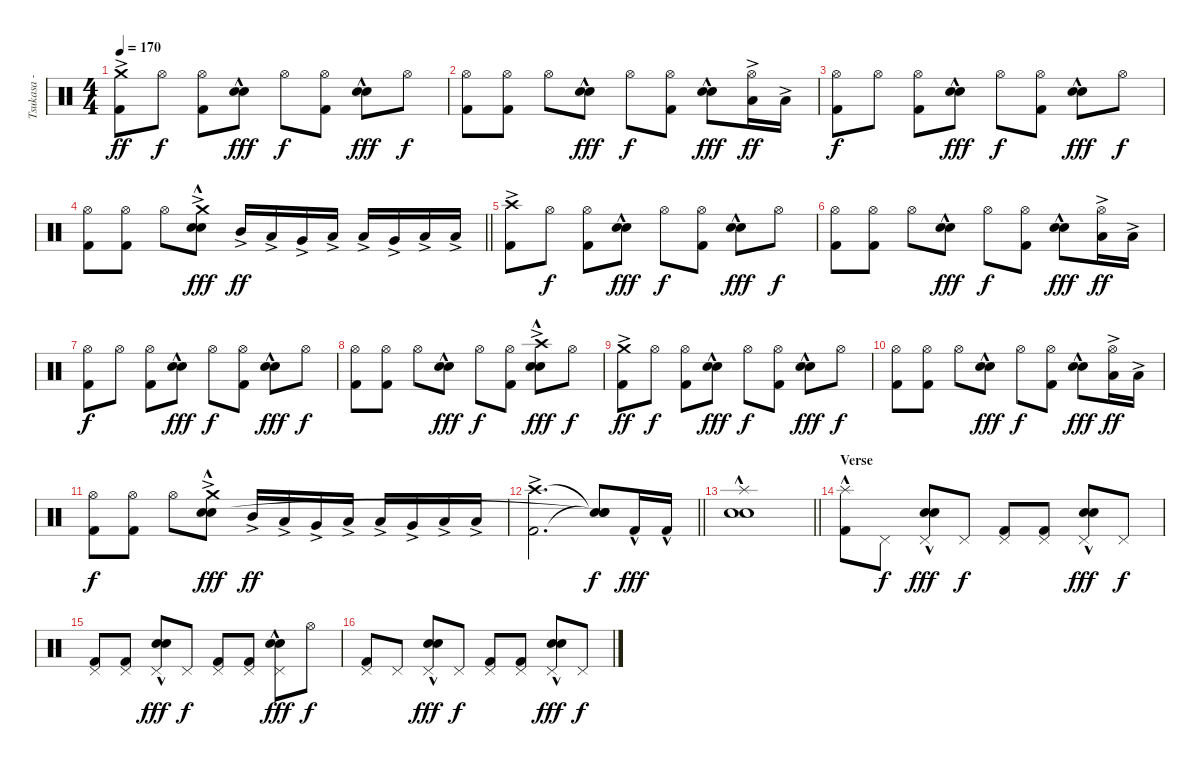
\track ("Tsukasa - Drums" "Tsukasa - ") {instrument percussion}
\staff {score}
\articulation defaults
\ts (4 4)
\tempo 170
\clef neutral
\ks c
("Crash medium (hit)"{ac} "Kick (hit) 2").8{dy ff} "Hi-Hat (open)".8{dy f} ("Hi-Hat (open)" "Kick (hit) 2").8 ("Electric Snare (hit)"{hac} "Snare (hit) 2").8{dy fff} "Hi-Hat (open)".8{dy f} ("Hi-Hat (open)" "Kick (hit) 2").8 ("Electric Snare (hit)"{hac} "Snare (hit) 2").8{dy fff} "Hi-Hat (open)".8{dy f} |
("Hi-Hat (open)" "Kick (hit) 2").8 ("Hi-Hat (open)" "Kick (hit) 2").8 "Hi-Hat (open)".8 ("Electric Snare (hit)"{hac} "Snare (hit) 2").8{dy fff} "Hi-Hat (open)".8{dy f} ("Hi-Hat (open)" "Kick (hit) 2").8 ("Electric Snare (hit)"{hac} "Snare (hit) 2").8{dy fff} ("Hi-Hat (open)" "Low Tom (hit)"{ac}).16{dy ff} "Low Tom (hit)"{ac}.16 |
("Hi-Hat (open)" "Kick (hit) 2").8{dy f} "Hi-Hat (open)".8 ("Hi-Hat (open)" "Kick (hit) 2").8 ("Electric Snare (hit)"{hac} "Snare (hit) 2").8{dy fff} "Hi-Hat (open)".8{dy f} ("Hi-Hat (open)" "Kick (hit) 2").8 ("Electric Snare (hit)"{hac} "Snare (hit) 2").8{dy fff} "Hi-Hat (open)".8{dy f} |
\barLineRight lightlight
("Hi-Hat (open)" "Kick (hit) 2").8 ("Hi-Hat (open)" "Kick (hit) 2").8 "Hi-Hat (open)".8 ("Crash medium (hit)"{ac} "Electric Snare (hit)"{hac} "Snare (hit) 2").8{dy fff} "Mid Tom (hit)"{ac}.16{dy ff} "Low Tom (hit)"{ac}.16 "Very Low Tom (hit)"{ac}.16 "Low Floor Tom (hit)"{ac}.16 "Low Tom (hit)"{ac}.16 "Very Low Tom (hit)"{ac}.16 "Low Floor Tom (hit)"{ac}.16 "Low Floor Tom (hit)"{ac}.16 |
\section ("" "")
("Crash high (hit)"{ac} "Kick (hit) 2").8 "Hi-Hat (open)".8{dy f} ("Hi-Hat (open)" "Kick (hit) 2").8 ("Electric Snare (hit)"{hac} "Snare (hit) 2").8{dy fff} "Hi-Hat (open)".8{dy f} ("Hi-Hat (open)" "Kick (hit) 2").8 ("Electric Snare (hit)"{hac} "Snare (hit) 2").8{dy fff} "Hi-Hat (open)".8{dy f} |
("Hi-Hat (open)" "Kick (hit) 2").8 ("Hi-Hat (open)" "Kick (hit) 2").8 "Hi-Hat (open)".8 ("Electric Snare (hit)"{hac} "Snare (hit) 2").8{dy fff} "Hi-Hat (open)".8{dy f} ("Hi-Hat (open)" "Kick (hit) 2").8 ("Electric Snare (hit)"{hac} "Snare (hit) 2").8{dy fff} ("Hi-Hat (open)" "Low Tom (hit)"{ac}).16{dy ff} "Low Tom (hit)"{ac}.16 |
("Hi-Hat (open)" "Kick (hit) 2").8{dy f} "Hi-Hat (open)".8 ("Hi-Hat (open)" "Kick (hit) 2").8 ("Electric Snare (hit)"{hac} "Snare (hit) 2").8{dy fff} "Hi-Hat (open)".8{dy f} ("Hi-Hat (open)" "Kick (hit) 2").8 ("Electric Snare (hit)"{hac} "Snare (hit) 2").8{dy fff} "Hi-Hat (open)".8{dy f} |
("Hi-Hat (open)" "Kick (hit) 2").8 ("Hi-Hat (open)" "Kick (hit) 2").8 "Hi-Hat (open)".8 ("Electric Snare (hit)"{hac} "Snare (hit) 2").8{dy fff} "Hi-Hat (open)".8{dy f} ("Hi-Hat (open)" "Kick (hit) 2").8 ("Crash high (hit)"{ac} "Electric Snare (hit)"{hac} "Snare (hit) 2").8{dy fff} "Hi-Hat (open)".8{dy f} |
("Crash medium (hit)"{ac} "Kick (hit) 2").8{dy ff} "Hi-Hat (open)".8{dy f} ("Hi-Hat (open)" "Kick (hit) 2").8 ("Electric Snare (hit)"{hac} "Snare (hit) 2").8{dy fff} "Hi-Hat (open)".8{dy f} ("Hi-Hat (open)" "Kick (hit) 2").8 ("Electric Snare (hit)"{hac} "Snare (hit) 2").8{dy fff} "Hi-Hat (open)".8{dy f} |
("Hi-Hat (open)" "Kick (hit) 2").8 ("Hi-Hat (open)" "Kick (hit) 2").8 "Hi-Hat (open)".8 ("Electric Snare (hit)"{hac} "Snare (hit) 2").8{dy fff} "Hi-Hat (open)".8{dy f} ("Hi-Hat (open)" "Kick (hit) 2").8 ("Electric Snare (hit)"{hac} "Snare (hit) 2").8{dy fff} ("Hi-Hat (open)" "Low Tom (hit)"{ac}).16{dy ff} "Low Tom (hit)"{ac}.16 |
("Hi-Hat (open)" "Kick (hit) 2").8{dy f} ("Hi-Hat (open)" "Kick (hit) 2").8 "Hi-Hat (open)".8 ("Crash medium (hit)"{ac} "Electric Snare (hit)"{hac} "Snare (hit) 2").8{dy fff} "Mid Tom (hit)"{ac}.16{dy ff} "Low Tom (hit)"{ac}.16 "Very Low Tom (hit)"{ac}.16 "Low Floor Tom (hit)"{ac}.16 "Low Tom (hit)"{ac}.16 "Very Low Tom (hit)"{ac}.16 "Low Floor Tom (hit)"{ac}.16 "Low Floor Tom (hit)"{ac}.16 |
\barLineRight lightlight
("Crash high (hit)"{ac} "Kick (hit) 2").2{d} ("Snare (hit)"{t} "Snare (hit)"{t} "Snare (hit)"{t}).8{dy f} "Kick (hit) 2"{hac}.16{dy fff} "Kick (hit) 2"{hac}.16 |
\barLineRight lightlight
("Splash (hit)"{hac} "Electric Snare (hit)" "Snare (hit) 2").1 |
\section ("" "Verse")
("Splash (hit)"{hac} "Kick (hit) 2").8 "Pedal Hi-Hat (hit)".8{dy f} ("Pedal Hi-Hat (hit)" "Electric Snare (hit)"{hac} "Snare (hit) 2").8{dy fff} "Pedal Hi-Hat (hit)".8{dy f} ("Pedal Hi-Hat (hit)" "Kick (hit) 2").8 ("Pedal Hi-Hat (hit)" "Kick (hit) 2").8 ("Pedal Hi-Hat (hit)" "Electric Snare (hit)"{hac} "Snare (hit) 2").8{dy fff} "Pedal Hi-Hat (hit)".8{dy f} |
("Pedal Hi-Hat (hit)" "Kick (hit) 2").8 ("Pedal Hi-Hat (hit)" "Kick (hit) 2").8 ("Pedal Hi-Hat (hit)" "Electric Snare (hit)"{hac} "Snare (hit) 2").8{dy fff} "Pedal Hi-Hat (hit)".8{dy f} ("Pedal Hi-Hat (hit)" "Kick (hit) 2").8 ("Pedal Hi-Hat (hit)" "Kick (hit) 2").8 ("Pedal Hi-Hat (hit)" "Electric Snare (hit)"{hac} "Snare (hit) 2").8{dy fff} "Hi-Hat (open)".8{dy f} |
("Pedal Hi-Hat (hit)" "Kick (hit) 2").8 "Pedal Hi-Hat (hit)".8 ("Pedal Hi-Hat (hit)" "Electric Snare (hit)"{hac} "Snare (hit) 2").8{dy fff} "Pedal Hi-Hat (hit)".8{dy f} ("Pedal Hi-Hat (hit)" "Kick (hit) 2").8 ("Pedal Hi-Hat (hit)" "Kick (hit) 2").8 ("Pedal Hi-Hat (hit)" "Electric Snare (hit)"{hac} "Snare (hit) 2").8{dy fff} "Pedal Hi-Hat (hit)".8{dy f}
